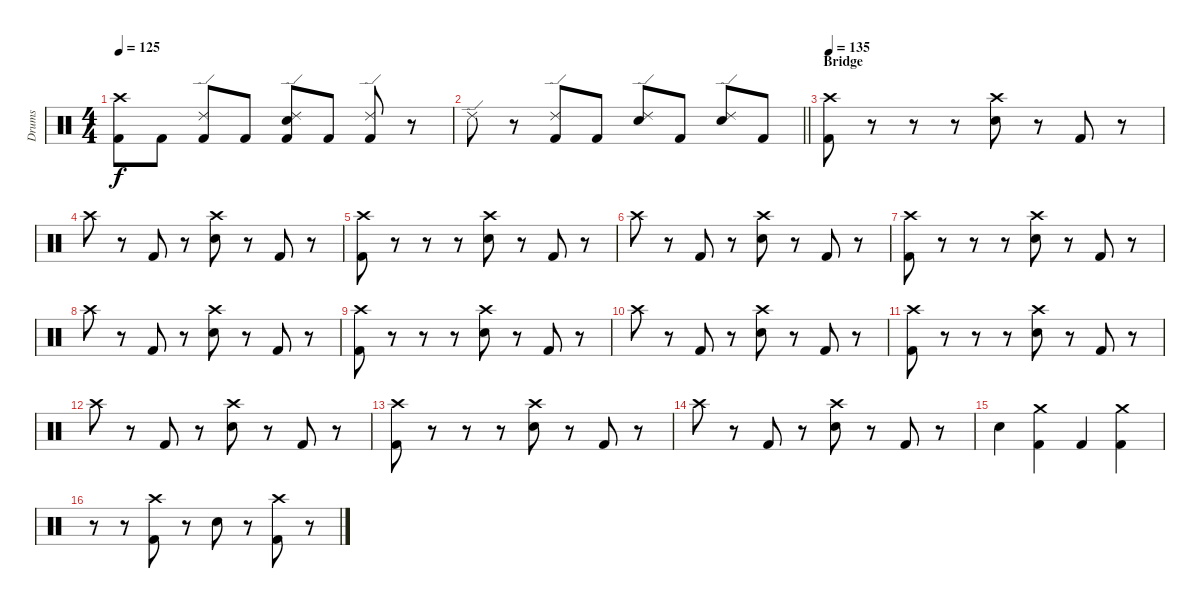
\track ("Drums" "Drums") {instrument percussion}
\staff {score}
\articulation defaults
\ts (4 4)
\tempo 125
\clef neutral
\ks c
("Crash high (hit)" "Kick (hit) 2").8{dy f} "Kick (hit) 2".8 ("Ride (edge) 2" "Kick (hit) 2").8 "Kick (hit) 2".8 ("Ride (edge) 2" "Electric Snare (hit)" "Kick (hit) 2").8 "Kick (hit) 2".8 ("Ride (edge) 2" "Kick (hit) 2").8 r.8 |
\barLineRight lightlight "Ride (edge) 2".8
r.8 ("Ride (edge) 2" "Kick (hit) 2").8 "Kick (hit) 2".8 ("Ride (edge) 2" "Electric Snare (hit)").8 "Kick (hit) 2".8 ("Ride (edge) 2" "Electric Snare (hit)").8 "Kick (hit) 2".8 |
\section ("" "Bridge")
\tempo 135
("Crash high (hit)" "Kick (hit) 2").8 r.8 r.8 r.8 ("Crash high (hit)" "Electric Snare (hit)").8 r.8 "Kick (hit) 2".8 r.8 |
"Crash high (hit)".8 r.8 "Kick (hit) 2".8 r.8 ("Crash high (hit)" "Electric Snare (hit)").8 r.8 "Kick (hit) 2".8 r.8 |
("Crash high (hit)" "Kick (hit) 2").8 r.8 r.8 r.8 ("Crash high (hit)" "Electric Snare (hit)").8 r.8 "Kick (hit) 2".8 r.8 |
"Crash high (hit)".8 r.8 "Kick (hit) 2".8 r.8 ("Crash high (hit)" "Electric Snare (hit)").8 r.8 "Kick (hit) 2".8 r.8 |
("Crash high (hit)" "Kick (hit) 2").8 r.8 r.8 r.8 ("Crash high (hit)" "Electric Snare (hit)").8 r.8 "Kick (hit) 2".8 r.8 |
"Crash high (hit)".8 r.8 "Kick (hit) 2".8 r.8 ("Crash high (hit)" "Electric Snare (hit)").8 r.8 "Kick (hit) 2".8 r.8 |
("Crash high (hit)" "Kick (hit) 2").8 r.8 r.8 r.8 ("Crash high (hit)" "Electric Snare (hit)").8 r.8 "Kick (hit) 2".8 r.8 |
"Crash high (hit)".8 r.8 "Kick (hit) 2".8 r.8 ("Crash high (hit)" "Electric Snare (hit)").8 r.8 "Kick (hit) 2".8 r.8 |
("Crash high (hit)" "Kick (hit) 2").8 r.8 r.8 r.8 ("Crash high (hit)" "Electric Snare (hit)").8 r.8 "Kick (hit) 2".8 r.8 |
"Crash high (hit)".8 r.8 "Kick (hit) 2".8 r.8 ("Crash high (hit)" "Electric Snare (hit)").8 r.8 "Kick (hit) 2".8 r.8 |
("Crash high (hit)" "Kick (hit) 2").8 r.8 r.8 r.8 ("Crash high (hit)" "Electric Snare (hit)").8 r.8 "Kick (hit) 2".8 r.8 |
"Crash high (hit)".8 r.8 "Kick (hit) 2".8 r.8 ("Crash high (hit)" "Electric Snare (hit)").8 r.8 "Kick (hit) 2".8 r.8 |
"Electric Snare (hit)".4 ("Crash medium (hit)" "Kick (hit) 2").4 "Kick (hit) 2".4 ("Crash medium (hit)" "Kick (hit) 2").4 |
r.8 r.8 ("Crash high (hit)" "Kick (hit) 2").8 r.8 "Electric Snare (hit)".8 r.8 ("Crash high (hit)" "Kick (hit) 2").8 r.8
